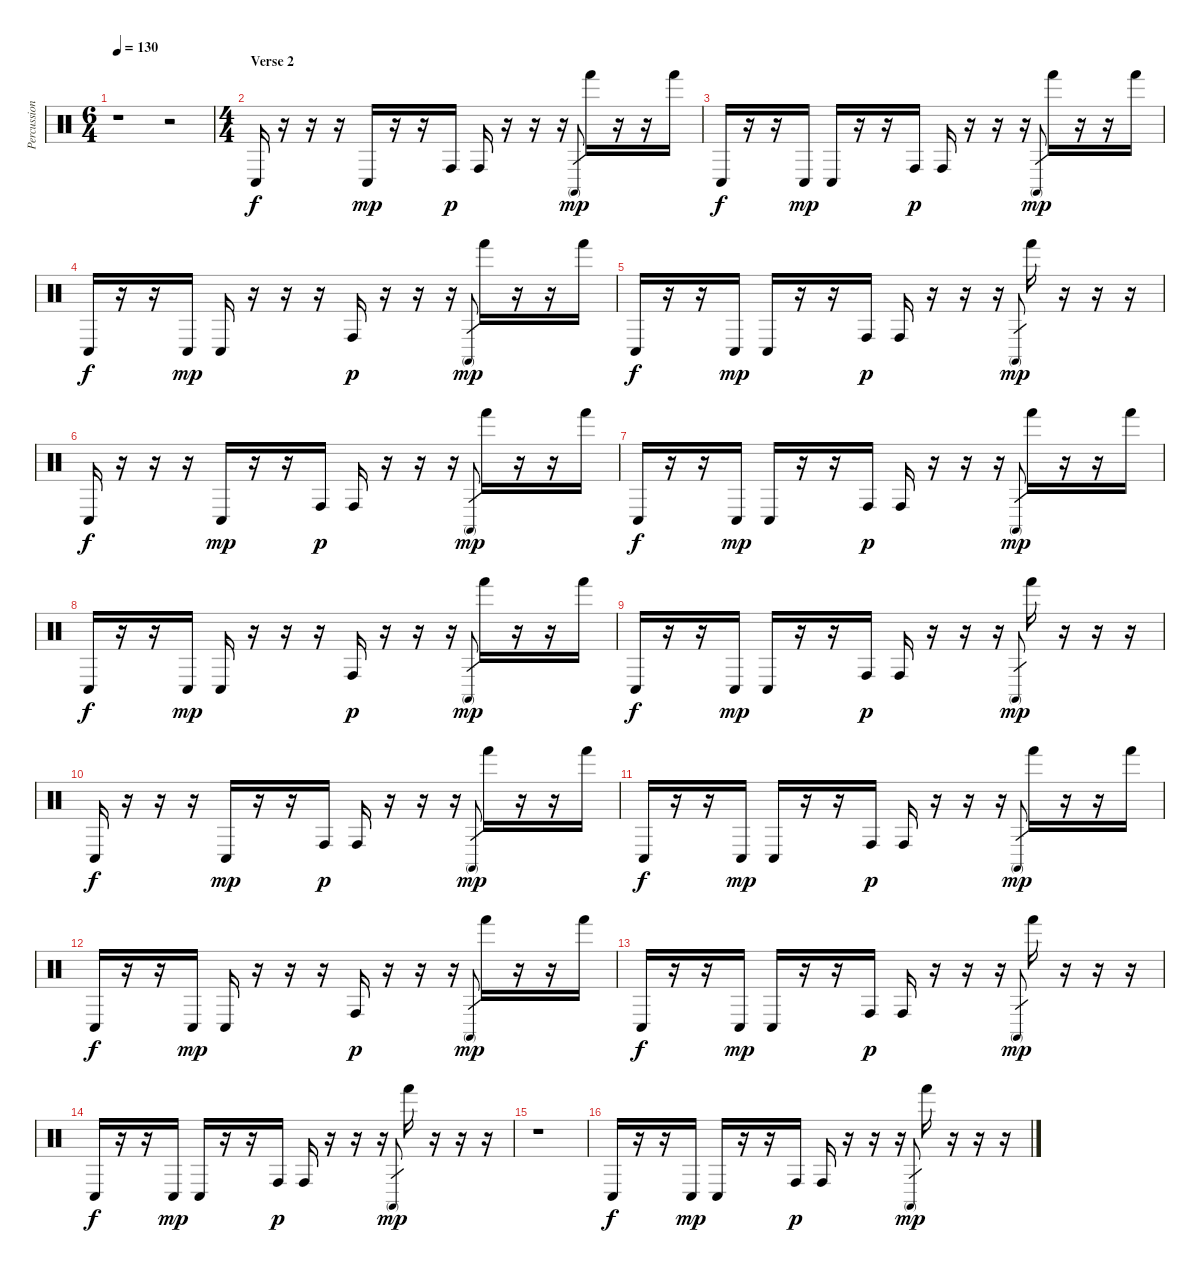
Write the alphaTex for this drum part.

\track ("Percussions" "Percussion") {instrument percussion}
\staff {score}
\articulation defaults
\ts (6 4)
\tempo 130
\clef neutral
\ks c
r.1{dy mp} r.2 |
\ts (4 4)
\section ("" "Verse 2")
"Conga low (hit)".16{dy f} r.16 r.16 r.16 "Conga low (hit)".16{dy mp} r.16 r.16 "Conga high (hit)".16{dy p} "Conga high (hit)".16 r.16 r.16 r.16 "Conga high (mute)".8{gr dy mp} "Hand (hit)".16 r.16 r.16 "Hand (hit)".16 |
"Conga low (hit)".16{dy f} r.16 r.16 "Conga low (hit)".16{dy mp} "Conga low (hit)".16 r.16 r.16 "Conga high (hit)".16{dy p} "Conga high (hit)".16 r.16 r.16 r.16 "Conga high (mute)".8{gr dy mp} "Hand (hit)".16 r.16 r.16 "Hand (hit)".16 |
"Conga low (hit)".16{dy f} r.16 r.16 "Conga low (hit)".16{dy mp} "Conga low (hit)".16 r.16 r.16 r.16 "Conga high (hit)".16{dy p} r.16 r.16 r.16 "Conga high (mute)".8{gr dy mp} "Hand (hit)".16 r.16 r.16 "Hand (hit)".16 |
"Conga low (hit)".16{dy f} r.16 r.16 "Conga low (hit)".16{dy mp} "Conga low (hit)".16 r.16 r.16 "Conga high (hit)".16{dy p} "Conga high (hit)".16 r.16 r.16 r.16 "Conga high (mute)".8{gr dy mp} "Hand (hit)".16 r.16 r.16 r.16 |
"Conga low (hit)".16{dy f} r.16 r.16 r.16 "Conga low (hit)".16{dy mp} r.16 r.16 "Conga high (hit)".16{dy p} "Conga high (hit)".16 r.16 r.16 r.16 "Conga high (mute)".8{gr dy mp} "Hand (hit)".16 r.16 r.16 "Hand (hit)".16 |
"Conga low (hit)".16{dy f} r.16 r.16 "Conga low (hit)".16{dy mp} "Conga low (hit)".16 r.16 r.16 "Conga high (hit)".16{dy p} "Conga high (hit)".16 r.16 r.16 r.16 "Conga high (mute)".8{gr dy mp} "Hand (hit)".16 r.16 r.16 "Hand (hit)".16 |
"Conga low (hit)".16{dy f} r.16 r.16 "Conga low (hit)".16{dy mp} "Conga low (hit)".16 r.16 r.16 r.16 "Conga high (hit)".16{dy p} r.16 r.16 r.16 "Conga high (mute)".8{gr dy mp} "Hand (hit)".16 r.16 r.16 "Hand (hit)".16 |
"Conga low (hit)".16{dy f} r.16 r.16 "Conga low (hit)".16{dy mp} "Conga low (hit)".16 r.16 r.16 "Conga high (hit)".16{dy p} "Conga high (hit)".16 r.16 r.16 r.16 "Conga high (mute)".8{gr dy mp} "Hand (hit)".16 r.16 r.16 r.16 |
"Conga low (hit)".16{dy f} r.16 r.16 r.16 "Conga low (hit)".16{dy mp} r.16 r.16 "Conga high (hit)".16{dy p} "Conga high (hit)".16 r.16 r.16 r.16 "Conga high (mute)".8{gr dy mp} "Hand (hit)".16 r.16 r.16 "Hand (hit)".16 |
"Conga low (hit)".16{dy f} r.16 r.16 "Conga low (hit)".16{dy mp} "Conga low (hit)".16 r.16 r.16 "Conga high (hit)".16{dy p} "Conga high (hit)".16 r.16 r.16 r.16 "Conga high (mute)".8{gr dy mp} "Hand (hit)".16 r.16 r.16 "Hand (hit)".16 |
"Conga low (hit)".16{dy f} r.16 r.16 "Conga low (hit)".16{dy mp} "Conga low (hit)".16 r.16 r.16 r.16 "Conga high (hit)".16{dy p} r.16 r.16 r.16 "Conga high (mute)".8{gr dy mp} "Hand (hit)".16 r.16 r.16 "Hand (hit)".16 |
"Conga low (hit)".16{dy f} r.16 r.16 "Conga low (hit)".16{dy mp} "Conga low (hit)".16 r.16 r.16 "Conga high (hit)".16{dy p} "Conga high (hit)".16 r.16 r.16 r.16 "Conga high (mute)".8{gr dy mp} "Hand (hit)".16 r.16 r.16 r.16 |
"Conga low (hit)".16{dy f} r.16 r.16 "Conga low (hit)".16{dy mp} "Conga low (hit)".16 r.16 r.16 "Conga high (hit)".16{dy p} "Conga high (hit)".16 r.16 r.16 r.16 "Conga high (mute)".8{gr dy mp} "Hand (hit)".16 r.16 r.16 r.16 |
r.1 |
"Conga low (hit)".16{dy f} r.16 r.16 "Conga low (hit)".16{dy mp} "Conga low (hit)".16 r.16 r.16 "Conga high (hit)".16{dy p} "Conga high (hit)".16 r.16 r.16 r.16 "Conga high (mute)".8{gr dy mp} "Hand (hit)".16 r.16 r.16 r.16
